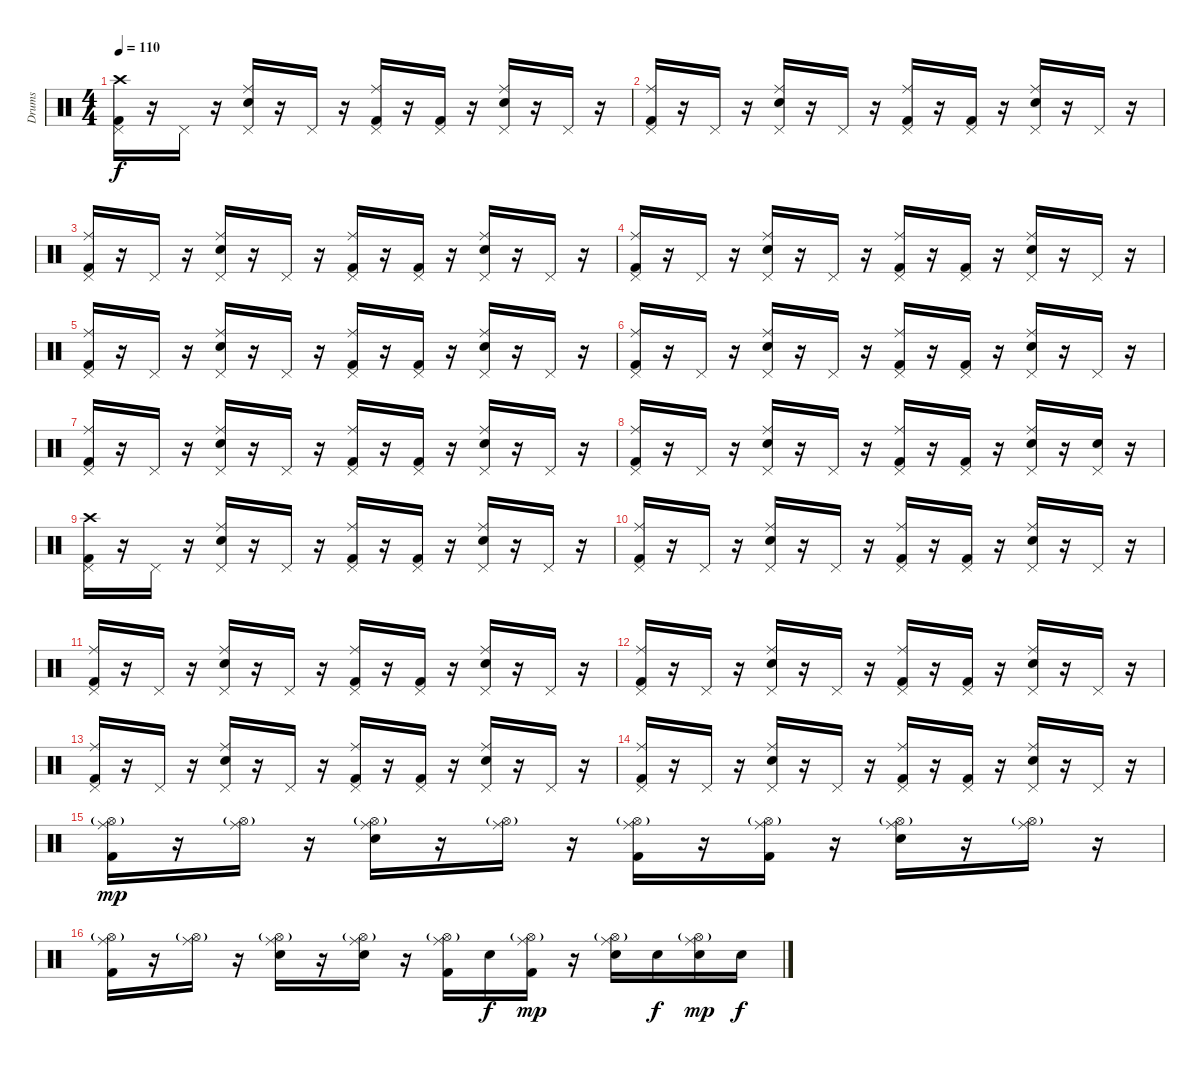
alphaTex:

\track ("Drums" "Drums") {instrument percussion}
\staff {score}
\articulation defaults
\ts (4 4)
\tempo 110
\clef neutral
\ks c
("Crash high (hit)" "Kick (hit) 2" "Pedal Hi-Hat (hit)").16{dy f} r.16 "Pedal Hi-Hat (hit)".16 r.16 ("Ride (middle)" "Electric Snare (hit)" "Pedal Hi-Hat (hit)").16 r.16 "Pedal Hi-Hat (hit)".16 r.16 ("Ride (middle)" "Kick (hit) 2" "Pedal Hi-Hat (hit)").16 r.16 ("Kick (hit) 2" "Pedal Hi-Hat (hit)").16 r.16 ("Ride (middle)" "Electric Snare (hit)" "Pedal Hi-Hat (hit)").16 r.16 "Pedal Hi-Hat (hit)".16 r.16 |
("Ride (middle)" "Kick (hit) 2" "Pedal Hi-Hat (hit)").16 r.16 "Pedal Hi-Hat (hit)".16 r.16 ("Ride (middle)" "Electric Snare (hit)" "Pedal Hi-Hat (hit)").16 r.16 "Pedal Hi-Hat (hit)".16 r.16 ("Ride (middle)" "Kick (hit) 2" "Pedal Hi-Hat (hit)").16 r.16 ("Kick (hit) 2" "Pedal Hi-Hat (hit)").16 r.16 ("Ride (middle)" "Electric Snare (hit)" "Pedal Hi-Hat (hit)").16 r.16 "Pedal Hi-Hat (hit)".16 r.16 |
("Ride (middle)" "Kick (hit) 2" "Pedal Hi-Hat (hit)").16 r.16 "Pedal Hi-Hat (hit)".16 r.16 ("Ride (middle)" "Electric Snare (hit)" "Pedal Hi-Hat (hit)").16 r.16 "Pedal Hi-Hat (hit)".16 r.16 ("Ride (middle)" "Kick (hit) 2" "Pedal Hi-Hat (hit)").16 r.16 ("Kick (hit) 2" "Pedal Hi-Hat (hit)").16 r.16 ("Ride (middle)" "Electric Snare (hit)" "Pedal Hi-Hat (hit)").16 r.16 "Pedal Hi-Hat (hit)".16 r.16 |
("Ride (middle)" "Kick (hit) 2" "Pedal Hi-Hat (hit)").16 r.16 "Pedal Hi-Hat (hit)".16 r.16 ("Ride (middle)" "Electric Snare (hit)" "Pedal Hi-Hat (hit)").16 r.16 "Pedal Hi-Hat (hit)".16 r.16 ("Ride (middle)" "Kick (hit) 2" "Pedal Hi-Hat (hit)").16 r.16 ("Kick (hit) 2" "Pedal Hi-Hat (hit)").16 r.16 ("Ride (middle)" "Electric Snare (hit)" "Pedal Hi-Hat (hit)").16 r.16 "Pedal Hi-Hat (hit)".16 r.16 |
("Ride (middle)" "Kick (hit) 2" "Pedal Hi-Hat (hit)").16 r.16 "Pedal Hi-Hat (hit)".16 r.16 ("Ride (middle)" "Electric Snare (hit)" "Pedal Hi-Hat (hit)").16 r.16 "Pedal Hi-Hat (hit)".16 r.16 ("Ride (middle)" "Kick (hit) 2" "Pedal Hi-Hat (hit)").16 r.16 ("Kick (hit) 2" "Pedal Hi-Hat (hit)").16 r.16 ("Ride (middle)" "Electric Snare (hit)" "Pedal Hi-Hat (hit)").16 r.16 "Pedal Hi-Hat (hit)".16 r.16 |
("Ride (middle)" "Kick (hit) 2" "Pedal Hi-Hat (hit)").16 r.16 "Pedal Hi-Hat (hit)".16 r.16 ("Ride (middle)" "Electric Snare (hit)" "Pedal Hi-Hat (hit)").16 r.16 "Pedal Hi-Hat (hit)".16 r.16 ("Ride (middle)" "Kick (hit) 2" "Pedal Hi-Hat (hit)").16 r.16 ("Kick (hit) 2" "Pedal Hi-Hat (hit)").16 r.16 ("Ride (middle)" "Electric Snare (hit)" "Pedal Hi-Hat (hit)").16 r.16 "Pedal Hi-Hat (hit)".16 r.16 |
("Ride (middle)" "Kick (hit) 2" "Pedal Hi-Hat (hit)").16 r.16 "Pedal Hi-Hat (hit)".16 r.16 ("Ride (middle)" "Electric Snare (hit)" "Pedal Hi-Hat (hit)").16 r.16 "Pedal Hi-Hat (hit)".16 r.16 ("Ride (middle)" "Kick (hit) 2" "Pedal Hi-Hat (hit)").16 r.16 ("Kick (hit) 2" "Pedal Hi-Hat (hit)").16 r.16 ("Ride (middle)" "Electric Snare (hit)" "Pedal Hi-Hat (hit)").16 r.16 "Pedal Hi-Hat (hit)".16 r.16 |
("Ride (middle)" "Kick (hit) 2" "Pedal Hi-Hat (hit)").16 r.16 "Pedal Hi-Hat (hit)".16 r.16 ("Ride (middle)" "Electric Snare (hit)" "Pedal Hi-Hat (hit)").16 r.16 "Pedal Hi-Hat (hit)".16 r.16 ("Ride (middle)" "Kick (hit) 2" "Pedal Hi-Hat (hit)").16 r.16 ("Kick (hit) 2" "Pedal Hi-Hat (hit)").16 r.16 ("Ride (middle)" "Electric Snare (hit)" "Pedal Hi-Hat (hit)").16 r.16 ("Electric Snare (hit)" "Pedal Hi-Hat (hit)").16 r.16 |
("Crash high (hit)" "Kick (hit) 2" "Pedal Hi-Hat (hit)").16 r.16 "Pedal Hi-Hat (hit)".16 r.16 ("Ride (middle)" "Electric Snare (hit)" "Pedal Hi-Hat (hit)").16 r.16 "Pedal Hi-Hat (hit)".16 r.16 ("Ride (middle)" "Kick (hit) 2" "Pedal Hi-Hat (hit)").16 r.16 ("Kick (hit) 2" "Pedal Hi-Hat (hit)").16 r.16 ("Ride (middle)" "Electric Snare (hit)" "Pedal Hi-Hat (hit)").16 r.16 "Pedal Hi-Hat (hit)".16 r.16 |
("Ride (middle)" "Kick (hit) 2" "Pedal Hi-Hat (hit)").16 r.16 "Pedal Hi-Hat (hit)".16 r.16 ("Ride (middle)" "Electric Snare (hit)" "Pedal Hi-Hat (hit)").16 r.16 "Pedal Hi-Hat (hit)".16 r.16 ("Ride (middle)" "Kick (hit) 2" "Pedal Hi-Hat (hit)").16 r.16 ("Kick (hit) 2" "Pedal Hi-Hat (hit)").16 r.16 ("Ride (middle)" "Electric Snare (hit)" "Pedal Hi-Hat (hit)").16 r.16 "Pedal Hi-Hat (hit)".16 r.16 |
("Ride (middle)" "Kick (hit) 2" "Pedal Hi-Hat (hit)").16 r.16 "Pedal Hi-Hat (hit)".16 r.16 ("Ride (middle)" "Electric Snare (hit)" "Pedal Hi-Hat (hit)").16 r.16 "Pedal Hi-Hat (hit)".16 r.16 ("Ride (middle)" "Kick (hit) 2" "Pedal Hi-Hat (hit)").16 r.16 ("Kick (hit) 2" "Pedal Hi-Hat (hit)").16 r.16 ("Ride (middle)" "Electric Snare (hit)" "Pedal Hi-Hat (hit)").16 r.16 "Pedal Hi-Hat (hit)".16 r.16 |
("Ride (middle)" "Kick (hit) 2" "Pedal Hi-Hat (hit)").16 r.16 "Pedal Hi-Hat (hit)".16 r.16 ("Ride (middle)" "Electric Snare (hit)" "Pedal Hi-Hat (hit)").16 r.16 "Pedal Hi-Hat (hit)".16 r.16 ("Ride (middle)" "Kick (hit) 2" "Pedal Hi-Hat (hit)").16 r.16 ("Kick (hit) 2" "Pedal Hi-Hat (hit)").16 r.16 ("Ride (middle)" "Electric Snare (hit)" "Pedal Hi-Hat (hit)").16 r.16 "Pedal Hi-Hat (hit)".16 r.16 |
("Ride (middle)" "Kick (hit) 2" "Pedal Hi-Hat (hit)").16 r.16 "Pedal Hi-Hat (hit)".16 r.16 ("Ride (middle)" "Electric Snare (hit)" "Pedal Hi-Hat (hit)").16 r.16 "Pedal Hi-Hat (hit)".16 r.16 ("Ride (middle)" "Kick (hit) 2" "Pedal Hi-Hat (hit)").16 r.16 ("Kick (hit) 2" "Pedal Hi-Hat (hit)").16 r.16 ("Ride (middle)" "Electric Snare (hit)" "Pedal Hi-Hat (hit)").16 r.16 "Pedal Hi-Hat (hit)".16 r.16 |
("Ride (middle)" "Kick (hit) 2" "Pedal Hi-Hat (hit)").16 r.16 "Pedal Hi-Hat (hit)".16 r.16 ("Ride (middle)" "Electric Snare (hit)" "Pedal Hi-Hat (hit)").16 r.16 "Pedal Hi-Hat (hit)".16 r.16 ("Ride (middle)" "Kick (hit) 2" "Pedal Hi-Hat (hit)").16 r.16 ("Kick (hit) 2" "Pedal Hi-Hat (hit)").16 r.16 ("Ride (middle)" "Electric Snare (hit)" "Pedal Hi-Hat (hit)").16 r.16 "Pedal Hi-Hat (hit)".16 r.16 |
("Ride (middle)" "Kick (hit) 2" "Hi-Hat (open)"{g}).16{dy mp} r.16 ("Ride (middle)" "Hi-Hat (open)"{g}).16 r.16 ("Ride (middle)" "Electric Snare (hit)" "Hi-Hat (open)"{g}).16 r.16 ("Ride (middle)" "Hi-Hat (open)"{g}).16 r.16 ("Ride (middle)" "Kick (hit) 2" "Hi-Hat (open)"{g}).16 r.16 ("Ride (middle)" "Kick (hit) 2" "Hi-Hat (open)"{g}).16 r.16 ("Ride (middle)" "Electric Snare (hit)" "Hi-Hat (open)"{g}).16 r.16 ("Ride (middle)" "Hi-Hat (open)"{g}).16 r.16 |
("Ride (middle)" "Kick (hit) 2" "Hi-Hat (open)"{g}).16 r.16 ("Ride (middle)" "Hi-Hat (open)"{g}).16 r.16 ("Ride (middle)" "Electric Snare (hit)" "Hi-Hat (open)"{g}).16 r.16 ("Ride (middle)" "Electric Snare (hit)" "Hi-Hat (open)"{g}).16 r.16 ("Ride (middle)" "Kick (hit) 2" "Hi-Hat (open)"{g}).16 "Electric Snare (hit)".16{dy f} ("Ride (middle)" "Kick (hit) 2" "Hi-Hat (open)"{g}).16{dy mp} r.16 ("Ride (middle)" "Electric Snare (hit)" "Hi-Hat (open)"{g}).16 "Electric Snare (hit)".16{dy f} ("Ride (middle)" "Electric Snare (hit)" "Hi-Hat (open)"{g}).16{dy mp} "Electric Snare (hit)".16{dy f}
